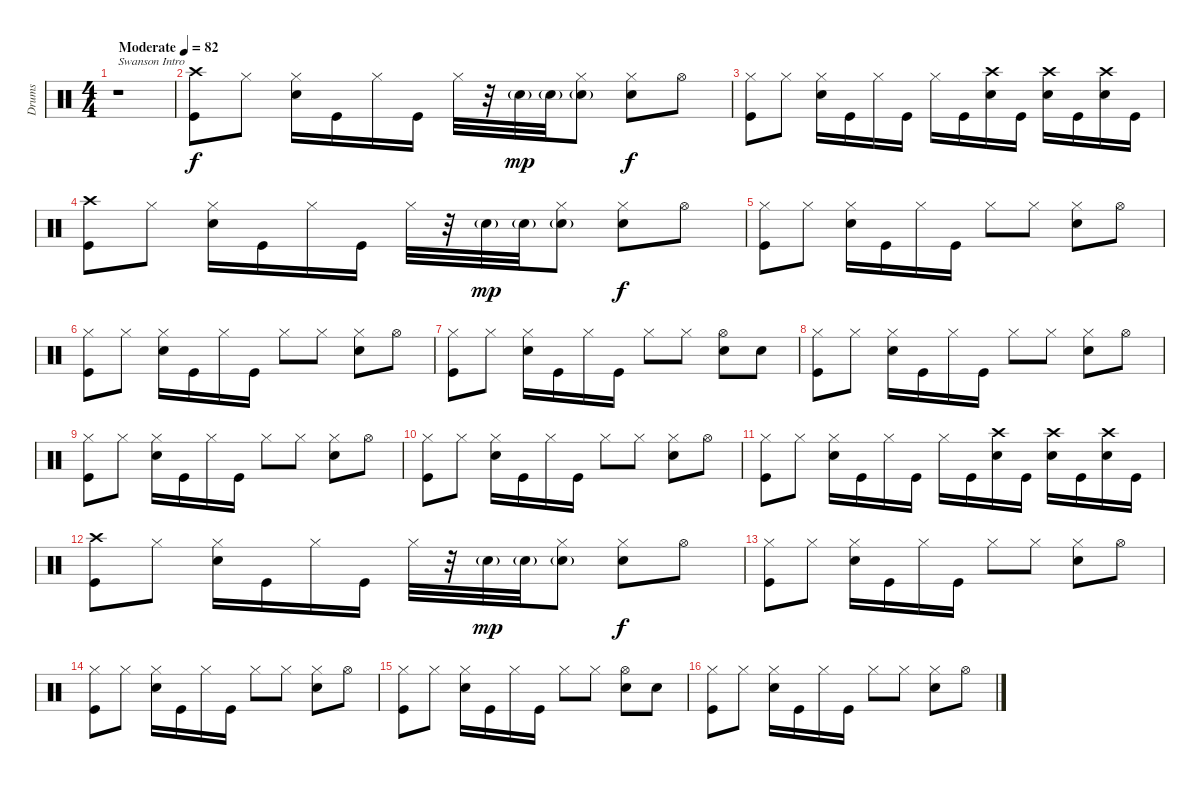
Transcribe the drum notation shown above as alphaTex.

\track ("Drums" "Drums") {instrument percussion}
\staff {score}
\articulation defaults
\ts (4 4)
\tempo (82 "Moderate")
\clef neutral
\ks c
r.1{txt "Swanson Intro" dy f} |
("Crash high (hit)" "Kick (hit)").8 "Hi-Hat (closed)".8 ("Hi-Hat (closed)" "Snare (hit) 2").16 "Kick (hit)".16 "Hi-Hat (closed)".16 "Kick (hit)".16 "Hi-Hat (closed)".32 r.32 "Snare (hit) 2"{g}.32{dy mp} "Snare (hit) 2"{g}.32 ("Hi-Hat (closed)" "Snare (hit) 2"{g}).8 ("Hi-Hat (closed)" "Snare (hit) 2").8{dy f} "Hi-Hat (open)".8 |
("Hi-Hat (closed)" "Kick (hit)").8 "Hi-Hat (closed)".8 ("Hi-Hat (closed)" "Snare (hit) 2").16 "Kick (hit)".16 "Hi-Hat (closed)".16 "Kick (hit)".16 "Hi-Hat (closed)".16 "Kick (hit)".16 ("Crash high (hit)" "Electric Snare (hit)").16 "Kick (hit)".16 ("Crash high (hit)" "Electric Snare (hit)").16 "Kick (hit)".16 ("Crash high (hit)" "Electric Snare (hit)").16 "Kick (hit)".16 |
("Crash high (hit)" "Kick (hit)").8 "Hi-Hat (closed)".8 ("Hi-Hat (closed)" "Snare (hit) 2").16 "Kick (hit)".16 "Hi-Hat (closed)".16 "Kick (hit)".16 "Hi-Hat (closed)".32 r.32 "Snare (hit) 2"{g}.32{dy mp} "Snare (hit) 2"{g}.32 ("Hi-Hat (closed)" "Snare (hit) 2"{g}).8 ("Hi-Hat (closed)" "Snare (hit) 2").8{dy f} "Hi-Hat (open)".8 |
("Hi-Hat (closed)" "Kick (hit)").8 "Hi-Hat (closed)".8 ("Hi-Hat (closed)" "Snare (hit) 2").16 "Kick (hit)".16 "Hi-Hat (closed)".16 "Kick (hit)".16 "Hi-Hat (closed)".8 "Hi-Hat (closed)".8 ("Hi-Hat (closed)" "Snare (hit) 2").8 "Hi-Hat (open)".8 |
("Hi-Hat (closed)" "Kick (hit)").8 "Hi-Hat (closed)".8 ("Hi-Hat (closed)" "Snare (hit) 2").16 "Kick (hit)".16 "Hi-Hat (closed)".16 "Kick (hit)".16 "Hi-Hat (closed)".8 "Hi-Hat (closed)".8 ("Hi-Hat (closed)" "Snare (hit) 2").8 "Hi-Hat (open)".8 |
("Hi-Hat (closed)" "Kick (hit)").8 "Hi-Hat (closed)".8 ("Hi-Hat (closed)" "Snare (hit) 2").16 "Kick (hit)".16 "Hi-Hat (closed)".16 "Kick (hit)".16 "Hi-Hat (closed)".8 "Hi-Hat (closed)".8 ("Hi-Hat (open)" "Snare (hit) 2").8 "Snare (hit) 2".8 |
("Hi-Hat (closed)" "Kick (hit)").8 "Hi-Hat (closed)".8 ("Hi-Hat (closed)" "Snare (hit) 2").16 "Kick (hit)".16 "Hi-Hat (closed)".16 "Kick (hit)".16 "Hi-Hat (closed)".8 "Hi-Hat (closed)".8 ("Hi-Hat (closed)" "Snare (hit) 2").8 "Hi-Hat (open)".8 |
("Hi-Hat (closed)" "Kick (hit)").8 "Hi-Hat (closed)".8 ("Hi-Hat (closed)" "Snare (hit) 2").16 "Kick (hit)".16 "Hi-Hat (closed)".16 "Kick (hit)".16 "Hi-Hat (closed)".8 "Hi-Hat (closed)".8 ("Hi-Hat (closed)" "Snare (hit) 2").8 "Hi-Hat (open)".8 |
("Hi-Hat (closed)" "Kick (hit)").8 "Hi-Hat (closed)".8 ("Hi-Hat (closed)" "Snare (hit) 2").16 "Kick (hit)".16 "Hi-Hat (closed)".16 "Kick (hit)".16 "Hi-Hat (closed)".8 "Hi-Hat (closed)".8 ("Hi-Hat (closed)" "Snare (hit) 2").8 "Hi-Hat (open)".8 |
("Hi-Hat (closed)" "Kick (hit)").8 "Hi-Hat (closed)".8 ("Hi-Hat (closed)" "Snare (hit) 2").16 "Kick (hit)".16 "Hi-Hat (closed)".16 "Kick (hit)".16 "Hi-Hat (closed)".16 "Kick (hit)".16 ("Crash high (hit)" "Electric Snare (hit)").16 "Kick (hit)".16 ("Crash high (hit)" "Electric Snare (hit)").16 "Kick (hit)".16 ("Crash high (hit)" "Electric Snare (hit)").16 "Kick (hit)".16 |
("Crash high (hit)" "Kick (hit)").8 "Hi-Hat (closed)".8 ("Hi-Hat (closed)" "Snare (hit) 2").16 "Kick (hit)".16 "Hi-Hat (closed)".16 "Kick (hit)".16 "Hi-Hat (closed)".32 r.32 "Snare (hit) 2"{g}.32{dy mp} "Snare (hit) 2"{g}.32 ("Hi-Hat (closed)" "Snare (hit) 2"{g}).8 ("Hi-Hat (closed)" "Snare (hit) 2").8{dy f} "Hi-Hat (open)".8 |
("Hi-Hat (closed)" "Kick (hit)").8 "Hi-Hat (closed)".8 ("Hi-Hat (closed)" "Snare (hit) 2").16 "Kick (hit)".16 "Hi-Hat (closed)".16 "Kick (hit)".16 "Hi-Hat (closed)".8 "Hi-Hat (closed)".8 ("Hi-Hat (closed)" "Snare (hit) 2").8 "Hi-Hat (open)".8 |
("Hi-Hat (closed)" "Kick (hit)").8 "Hi-Hat (closed)".8 ("Hi-Hat (closed)" "Snare (hit) 2").16 "Kick (hit)".16 "Hi-Hat (closed)".16 "Kick (hit)".16 "Hi-Hat (closed)".8 "Hi-Hat (closed)".8 ("Hi-Hat (closed)" "Snare (hit) 2").8 "Hi-Hat (open)".8 |
("Hi-Hat (closed)" "Kick (hit)").8 "Hi-Hat (closed)".8 ("Hi-Hat (closed)" "Snare (hit) 2").16 "Kick (hit)".16 "Hi-Hat (closed)".16 "Kick (hit)".16 "Hi-Hat (closed)".8 "Hi-Hat (closed)".8 ("Hi-Hat (open)" "Snare (hit) 2").8 "Snare (hit) 2".8 |
("Hi-Hat (closed)" "Kick (hit)").8 "Hi-Hat (closed)".8 ("Hi-Hat (closed)" "Snare (hit) 2").16 "Kick (hit)".16 "Hi-Hat (closed)".16 "Kick (hit)".16 "Hi-Hat (closed)".8 "Hi-Hat (closed)".8 ("Hi-Hat (closed)" "Snare (hit) 2").8 "Hi-Hat (open)".8
